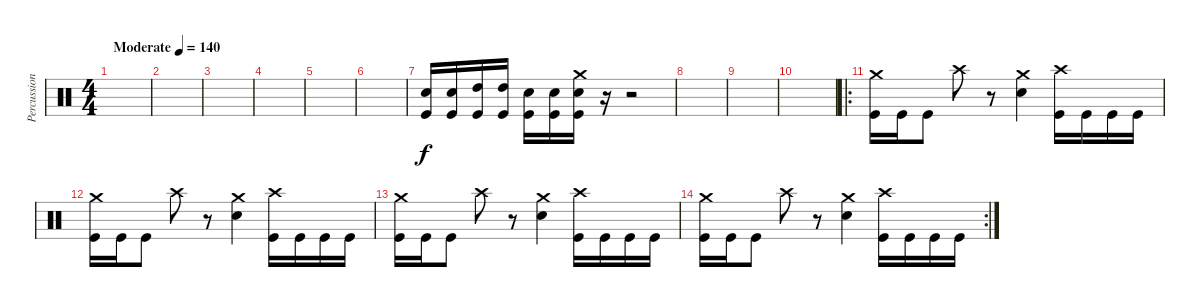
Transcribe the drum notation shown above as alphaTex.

\track ("Percussion" "Percussion") {instrument percussion}
\staff {score}
\articulation defaults
\ts (4 4)
\tempo (140 "Moderate")
\clef neutral
\ks c
|
|
|
|
|
|
("Snare (hit) 2" "Kick (hit)").16 ("Snare (hit) 2" "Kick (hit)").16 ("High Tom (hit)" "Kick (hit)").16 ("High Tom (hit)" "Kick (hit)").16 ("Snare (hit) 2" "Kick (hit)").16 ("Snare (hit) 2" "Kick (hit)").16 ("Crash medium (hit)" "Snare (hit) 2" "Kick (hit)").16 r.16 r.2 |
|
|
|
\ro
("Crash medium (hit)" "Kick (hit)").16 "Kick (hit)".16 "Kick (hit)".8 "Crash high (hit)".8 r.8 ("Crash medium (hit)" "Snare (hit) 2").4 ("Crash high (hit)" "Kick (hit)").16 "Kick (hit)".16 "Kick (hit)".16 "Kick (hit)".16 |
("Crash medium (hit)" "Kick (hit)").16 "Kick (hit)".16 "Kick (hit)".8 "Crash high (hit)".8 r.8 ("Crash medium (hit)" "Snare (hit) 2").4 ("Crash high (hit)" "Kick (hit)").16 "Kick (hit)".16 "Kick (hit)".16 "Kick (hit)".16 |
("Crash medium (hit)" "Kick (hit)").16 "Kick (hit)".16 "Kick (hit)".8 "Crash high (hit)".8 r.8 ("Crash medium (hit)" "Snare (hit) 2").4 ("Crash high (hit)" "Kick (hit)").16 "Kick (hit)".16 "Kick (hit)".16 "Kick (hit)".16 |
\rc 2
("Crash medium (hit)" "Kick (hit)").16 "Kick (hit)".16 "Kick (hit)".8 "Crash high (hit)".8 r.8 ("Crash medium (hit)" "Snare (hit) 2").4 ("Crash high (hit)" "Kick (hit)").16 "Kick (hit)".16 "Kick (hit)".16 "Kick (hit)".16
